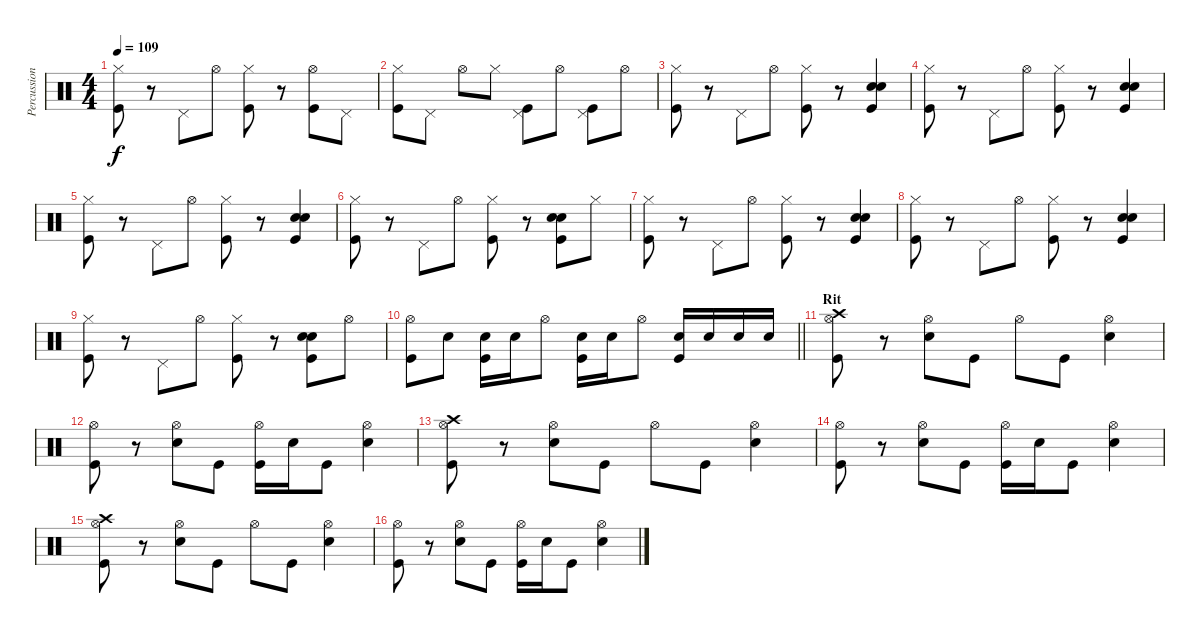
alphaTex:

\track ("Percussioni" "Percussion") {instrument percussion}
\staff {score}
\articulation defaults
\ts (4 4)
\tempo 109
\clef neutral
\ks c
("Hi-Hat (closed)" "Kick (hit)").8{dy f} r.8 "Pedal Hi-Hat (hit)".8 "Hi-Hat (open)".8 ("Hi-Hat (closed)" "Kick (hit)").8 r.8 ("Hi-Hat (open)" "Kick (hit)").8 "Pedal Hi-Hat (hit)".8 |
("Hi-Hat (closed)" "Kick (hit)").8 "Pedal Hi-Hat (hit)".8 "Hi-Hat (open)".8 "Hi-Hat (closed)".8 ("Pedal Hi-Hat (hit)" "Kick (hit)").8 "Hi-Hat (open)".8 ("Pedal Hi-Hat (hit)" "Kick (hit)").8 "Hi-Hat (open)".8 |
("Hi-Hat (closed)" "Kick (hit)").8 r.8 "Pedal Hi-Hat (hit)".8 "Hi-Hat (open)".8 ("Hi-Hat (closed)" "Kick (hit)").8 r.8 ("Snare (hit) 2" "Snare (hit) 2" "Kick (hit)").4 |
("Hi-Hat (closed)" "Kick (hit)").8 r.8 "Pedal Hi-Hat (hit)".8 "Hi-Hat (open)".8 ("Hi-Hat (closed)" "Kick (hit)").8 r.8 ("Snare (hit) 2" "Snare (hit) 2" "Kick (hit)").4 |
("Hi-Hat (closed)" "Kick (hit)").8 r.8 "Pedal Hi-Hat (hit)".8 "Hi-Hat (open)".8 ("Hi-Hat (closed)" "Kick (hit)").8 r.8 ("Snare (hit) 2" "Snare (hit) 2" "Kick (hit)").4 |
("Hi-Hat (closed)" "Kick (hit)").8 r.8 "Pedal Hi-Hat (hit)".8 "Hi-Hat (open)".8 ("Hi-Hat (closed)" "Kick (hit)").8 r.8 ("Snare (hit) 2" "Snare (hit) 2" "Kick (hit)").8 "Hi-Hat (closed)".8 |
("Hi-Hat (closed)" "Kick (hit)").8 r.8 "Pedal Hi-Hat (hit)".8 "Hi-Hat (open)".8 ("Hi-Hat (closed)" "Kick (hit)").8 r.8 ("Snare (hit) 2" "Snare (hit) 2" "Kick (hit)").4 |
("Hi-Hat (closed)" "Kick (hit)").8 r.8 "Pedal Hi-Hat (hit)".8 "Hi-Hat (open)".8 ("Hi-Hat (closed)" "Kick (hit)").8 r.8 ("Snare (hit) 2" "Snare (hit) 2" "Kick (hit)").4 |
("Hi-Hat (closed)" "Kick (hit)").8 r.8 "Pedal Hi-Hat (hit)".8 "Hi-Hat (open)".8 ("Hi-Hat (closed)" "Kick (hit)").8 r.8 ("Snare (hit) 2" "Snare (hit) 2" "Kick (hit)").8 "Hi-Hat (open)".8 |
\barLineRight lightlight
("Hi-Hat (open)" "Kick (hit)").8 "Snare (hit) 2".8 ("Snare (hit) 2" "Kick (hit)").16 "Snare (hit) 2".16 "Hi-Hat (open)".8 ("Snare (hit) 2" "Kick (hit)").16 "Snare (hit) 2".16 "Hi-Hat (open)".8 ("Snare (hit) 2" "Kick (hit)").16 "Snare (hit) 2".16 "Snare (hit) 2".16 "Snare (hit) 2".16 |
\section ("" "Rit")
("Crash high (hit)" "Kick (hit)" "Hi-Hat (open)").8 r.8 ("Snare (hit) 2" "Hi-Hat (open)").8 "Kick (hit)".8 "Hi-Hat (open)".8 "Kick (hit)".8 ("Snare (hit) 2" "Hi-Hat (open)").4 |
("Kick (hit)" "Hi-Hat (open)").8 r.8 ("Snare (hit) 2" "Hi-Hat (open)").8 "Kick (hit)".8 ("Kick (hit)" "Hi-Hat (open)").16 "Snare (hit) 2".16 "Kick (hit)".8 ("Snare (hit) 2" "Hi-Hat (open)").4 |
("Crash high (hit)" "Kick (hit)" "Hi-Hat (open)").8 r.8 ("Snare (hit) 2" "Hi-Hat (open)").8 "Kick (hit)".8 "Hi-Hat (open)".8 "Kick (hit)".8 ("Snare (hit) 2" "Hi-Hat (open)").4 |
("Kick (hit)" "Hi-Hat (open)").8 r.8 ("Snare (hit) 2" "Hi-Hat (open)").8 "Kick (hit)".8 ("Kick (hit)" "Hi-Hat (open)").16 "Snare (hit) 2".16 "Kick (hit)".8 ("Snare (hit) 2" "Hi-Hat (open)").4 |
("Crash high (hit)" "Kick (hit)" "Hi-Hat (open)").8 r.8 ("Snare (hit) 2" "Hi-Hat (open)").8 "Kick (hit)".8 "Hi-Hat (open)".8 "Kick (hit)".8 ("Snare (hit) 2" "Hi-Hat (open)").4 |
("Kick (hit)" "Hi-Hat (open)").8 r.8 ("Snare (hit) 2" "Hi-Hat (open)").8 "Kick (hit)".8 ("Kick (hit)" "Hi-Hat (open)").16 "Snare (hit) 2".16 "Kick (hit)".8 ("Snare (hit) 2" "Hi-Hat (open)").4
